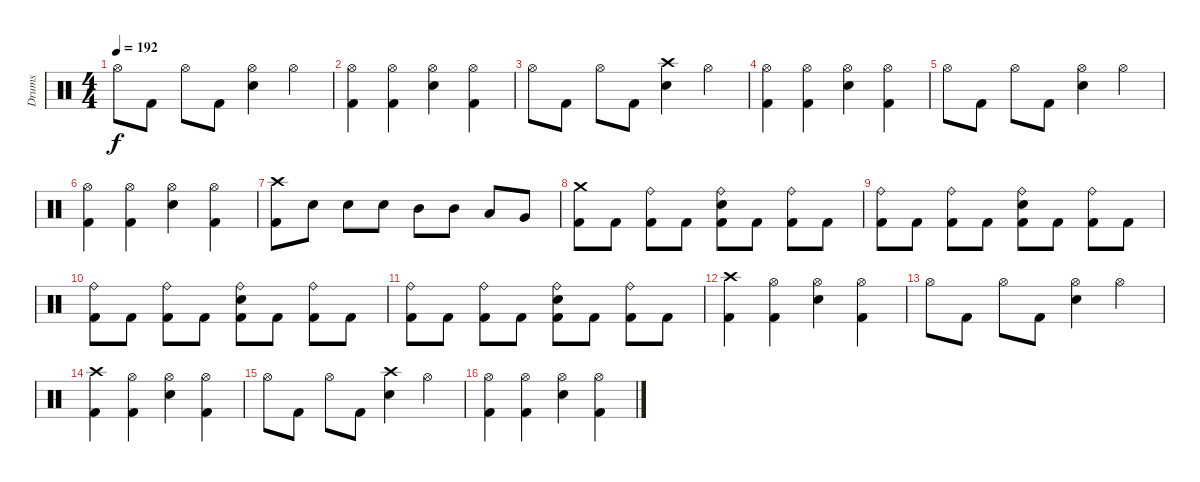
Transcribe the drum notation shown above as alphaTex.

\track ("Drums" "Drums") {instrument percussion}
\staff {score}
\articulation defaults
\ts (4 4)
\tempo 192
\clef neutral
\ks c "Hi-Hat (open)".8{dy f} "Kick (hit) 2".8 "Hi-Hat (open)".8 "Kick (hit) 2".8
("Hi-Hat (open)" "Electric Snare (hit)").4 "Hi-Hat (open)".4 |
("Hi-Hat (open)" "Kick (hit) 2").4 ("Hi-Hat (open)" "Kick (hit) 2").4 ("Hi-Hat (open)" "Electric Snare (hit)").4 ("Hi-Hat (open)" "Kick (hit) 2").4 |
"Hi-Hat (open)".8 "Kick (hit) 2".8 "Hi-Hat (open)".8 "Kick (hit) 2".8 ("Crash high (hit)" "Electric Snare (hit)").4 "Hi-Hat (open)".4 |
("Hi-Hat (open)" "Kick (hit) 2").4 ("Hi-Hat (open)" "Kick (hit) 2").4 ("Hi-Hat (open)" "Electric Snare (hit)").4 ("Hi-Hat (open)" "Kick (hit) 2").4 |
"Hi-Hat (open)".8 "Kick (hit) 2".8 "Hi-Hat (open)".8 "Kick (hit) 2".8 ("Hi-Hat (open)" "Electric Snare (hit)").4 "Hi-Hat (open)".4 |
("Hi-Hat (open)" "Kick (hit) 2").4 ("Hi-Hat (open)" "Kick (hit) 2").4 ("Hi-Hat (open)" "Electric Snare (hit)").4 ("Hi-Hat (open)" "Kick (hit) 2").4 |
("Crash high (hit)" "Kick (hit) 2").8 "Electric Snare (hit)".8 "Electric Snare (hit)".8 "Electric Snare (hit)".8 "Mid Tom (hit)".8 "Mid Tom (hit)".8 "Low Tom (hit)".8 "Very Low Tom (hit)".8 |
("Crash medium (hit)" "Kick (hit) 2").8 "Kick (hit) 2".8 ("Ride (bell)" "Kick (hit) 2").8 "Kick (hit) 2".8 ("Ride (bell)" "Electric Snare (hit)" "Kick (hit) 2").8 "Kick (hit) 2".8 ("Ride (bell)" "Kick (hit) 2").8 "Kick (hit) 2".8 |
("Ride (bell)" "Kick (hit) 2").8 "Kick (hit) 2".8 ("Ride (bell)" "Kick (hit) 2").8 "Kick (hit) 2".8 ("Ride (bell)" "Electric Snare (hit)" "Kick (hit) 2").8 "Kick (hit) 2".8 ("Ride (bell)" "Kick (hit) 2").8 "Kick (hit) 2".8 |
("Ride (bell)" "Kick (hit) 2").8 "Kick (hit) 2".8 ("Ride (bell)" "Kick (hit) 2").8 "Kick (hit) 2".8 ("Ride (bell)" "Electric Snare (hit)" "Kick (hit) 2").8 "Kick (hit) 2".8 ("Ride (bell)" "Kick (hit) 2").8 "Kick (hit) 2".8 |
("Ride (bell)" "Kick (hit) 2").8 "Kick (hit) 2".8 ("Ride (bell)" "Kick (hit) 2").8 "Kick (hit) 2".8 ("Ride (bell)" "Electric Snare (hit)" "Kick (hit) 2").8 "Kick (hit) 2".8 ("Ride (bell)" "Kick (hit) 2").8 "Kick (hit) 2".8 |
("Crash high (hit)" "Kick (hit) 2").4 ("Hi-Hat (open)" "Kick (hit) 2").4 ("Hi-Hat (open)" "Electric Snare (hit)").4 ("Hi-Hat (open)" "Kick (hit) 2").4 |
"Hi-Hat (open)".8 "Kick (hit) 2".8 "Hi-Hat (open)".8 "Kick (hit) 2".8 ("Hi-Hat (open)" "Electric Snare (hit)").4 "Hi-Hat (open)".4 |
("Crash high (hit)" "Kick (hit) 2").4 ("Hi-Hat (open)" "Kick (hit) 2").4 ("Hi-Hat (open)" "Electric Snare (hit)").4 ("Hi-Hat (open)" "Kick (hit) 2").4 |
"Hi-Hat (open)".8 "Kick (hit) 2".8 "Hi-Hat (open)".8 "Kick (hit) 2".8 ("Crash high (hit)" "Electric Snare (hit)").4 "Hi-Hat (open)".4 |
("Hi-Hat (open)" "Kick (hit) 2").4 ("Hi-Hat (open)" "Kick (hit) 2").4 ("Hi-Hat (open)" "Electric Snare (hit)").4 ("Hi-Hat (open)" "Kick (hit) 2").4
